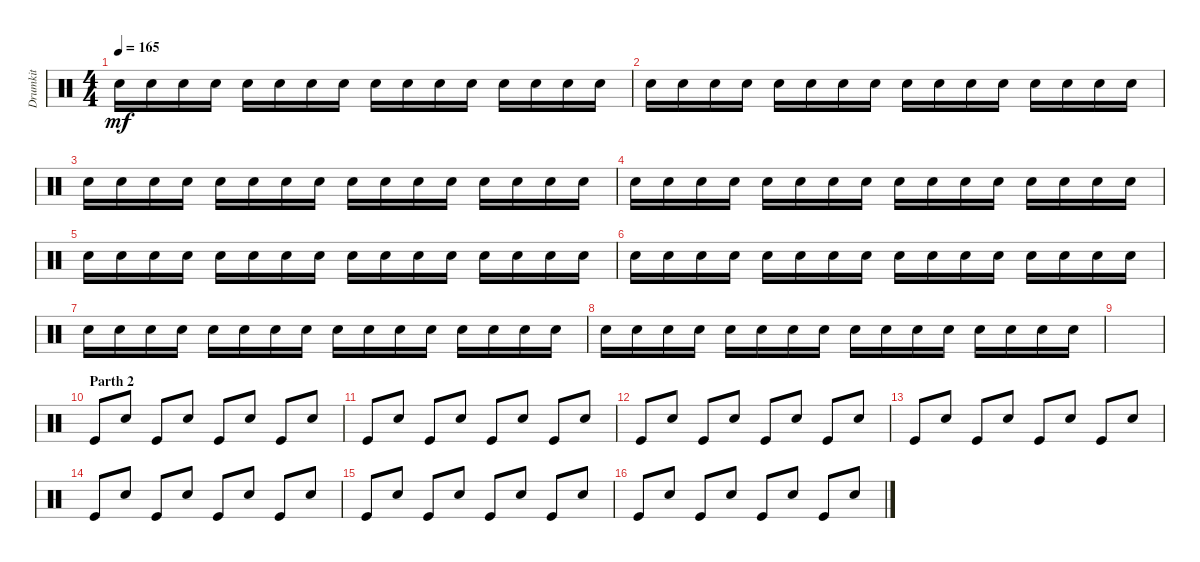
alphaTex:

\track ("Drumkit" "Drumkit") {instrument percussion}
\staff {score}
\articulation defaults
\ts (4 4)
\tempo 165
\clef neutral
\ks c "Electric Snare (hit)".16{dy mf} "Electric Snare (hit)".16 "Electric Snare (hit)".16 "Electric Snare (hit)".16 "Electric Snare (hit)".16 "Electric Snare (hit)".16 "Electric Snare (hit)".16 "Electric Snare (hit)".16 "Electric Snare (hit)".16 "Electric Snare (hit)".16 "Electric Snare (hit)".16 "Electric Snare (hit)".16 "Electric Snare (hit)".16 "Electric Snare (hit)".16 "Electric Snare (hit)".16 "Electric Snare (hit)".16
|
"Electric Snare (hit)".16 "Electric Snare (hit)".16 "Electric Snare (hit)".16 "Electric Snare (hit)".16 "Electric Snare (hit)".16 "Electric Snare (hit)".16 "Electric Snare (hit)".16 "Electric Snare (hit)".16 "Electric Snare (hit)".16 "Electric Snare (hit)".16 "Electric Snare (hit)".16 "Electric Snare (hit)".16 "Electric Snare (hit)".16 "Electric Snare (hit)".16 "Electric Snare (hit)".16 "Electric Snare (hit)".16 |
"Electric Snare (hit)".16 "Electric Snare (hit)".16 "Electric Snare (hit)".16 "Electric Snare (hit)".16 "Electric Snare (hit)".16 "Electric Snare (hit)".16 "Electric Snare (hit)".16 "Electric Snare (hit)".16 "Electric Snare (hit)".16 "Electric Snare (hit)".16 "Electric Snare (hit)".16 "Electric Snare (hit)".16 "Electric Snare (hit)".16 "Electric Snare (hit)".16 "Electric Snare (hit)".16 "Electric Snare (hit)".16 |
"Electric Snare (hit)".16 "Electric Snare (hit)".16 "Electric Snare (hit)".16 "Electric Snare (hit)".16 "Electric Snare (hit)".16 "Electric Snare (hit)".16 "Electric Snare (hit)".16 "Electric Snare (hit)".16 "Electric Snare (hit)".16 "Electric Snare (hit)".16 "Electric Snare (hit)".16 "Electric Snare (hit)".16 "Electric Snare (hit)".16 "Electric Snare (hit)".16 "Electric Snare (hit)".16 "Electric Snare (hit)".16 |
"Electric Snare (hit)".16 "Electric Snare (hit)".16 "Electric Snare (hit)".16 "Electric Snare (hit)".16 "Electric Snare (hit)".16 "Electric Snare (hit)".16 "Electric Snare (hit)".16 "Electric Snare (hit)".16 "Electric Snare (hit)".16 "Electric Snare (hit)".16 "Electric Snare (hit)".16 "Electric Snare (hit)".16 "Electric Snare (hit)".16 "Electric Snare (hit)".16 "Electric Snare (hit)".16 "Electric Snare (hit)".16 |
"Electric Snare (hit)".16 "Electric Snare (hit)".16 "Electric Snare (hit)".16 "Electric Snare (hit)".16 "Electric Snare (hit)".16 "Electric Snare (hit)".16 "Electric Snare (hit)".16 "Electric Snare (hit)".16 "Electric Snare (hit)".16 "Electric Snare (hit)".16 "Electric Snare (hit)".16 "Electric Snare (hit)".16 "Electric Snare (hit)".16 "Electric Snare (hit)".16 "Electric Snare (hit)".16 "Electric Snare (hit)".16 |
"Electric Snare (hit)".16 "Electric Snare (hit)".16 "Electric Snare (hit)".16 "Electric Snare (hit)".16 "Electric Snare (hit)".16 "Electric Snare (hit)".16 "Electric Snare (hit)".16 "Electric Snare (hit)".16 "Electric Snare (hit)".16 "Electric Snare (hit)".16 "Electric Snare (hit)".16 "Electric Snare (hit)".16 "Electric Snare (hit)".16 "Electric Snare (hit)".16 "Electric Snare (hit)".16 "Electric Snare (hit)".16 |
"Electric Snare (hit)".16 "Electric Snare (hit)".16 "Electric Snare (hit)".16 "Electric Snare (hit)".16 "Electric Snare (hit)".16 "Electric Snare (hit)".16 "Electric Snare (hit)".16 "Electric Snare (hit)".16 "Electric Snare (hit)".16 "Electric Snare (hit)".16 "Electric Snare (hit)".16 "Electric Snare (hit)".16 "Electric Snare (hit)".16 "Electric Snare (hit)".16 "Electric Snare (hit)".16 "Electric Snare (hit)".16 |
|
\section ("" "Parth 2")
"Kick (hit)".8 "Electric Snare (hit)".8 "Kick (hit)".8 "Electric Snare (hit)".8 "Kick (hit)".8 "Electric Snare (hit)".8 "Kick (hit)".8 "Electric Snare (hit)".8 |
"Kick (hit)".8 "Electric Snare (hit)".8 "Kick (hit)".8 "Electric Snare (hit)".8 "Kick (hit)".8 "Electric Snare (hit)".8 "Kick (hit)".8 "Electric Snare (hit)".8 |
"Kick (hit)".8 "Electric Snare (hit)".8 "Kick (hit)".8 "Electric Snare (hit)".8 "Kick (hit)".8 "Electric Snare (hit)".8 "Kick (hit)".8 "Electric Snare (hit)".8 |
"Kick (hit)".8 "Electric Snare (hit)".8 "Kick (hit)".8 "Electric Snare (hit)".8 "Kick (hit)".8 "Electric Snare (hit)".8 "Kick (hit)".8 "Electric Snare (hit)".8 |
"Kick (hit)".8 "Electric Snare (hit)".8 "Kick (hit)".8 "Electric Snare (hit)".8 "Kick (hit)".8 "Electric Snare (hit)".8 "Kick (hit)".8 "Electric Snare (hit)".8 |
"Kick (hit)".8 "Electric Snare (hit)".8 "Kick (hit)".8 "Electric Snare (hit)".8 "Kick (hit)".8 "Electric Snare (hit)".8 "Kick (hit)".8 "Electric Snare (hit)".8 |
"Kick (hit)".8 "Electric Snare (hit)".8 "Kick (hit)".8 "Electric Snare (hit)".8 "Kick (hit)".8 "Electric Snare (hit)".8 "Kick (hit)".8 "Electric Snare (hit)".8
